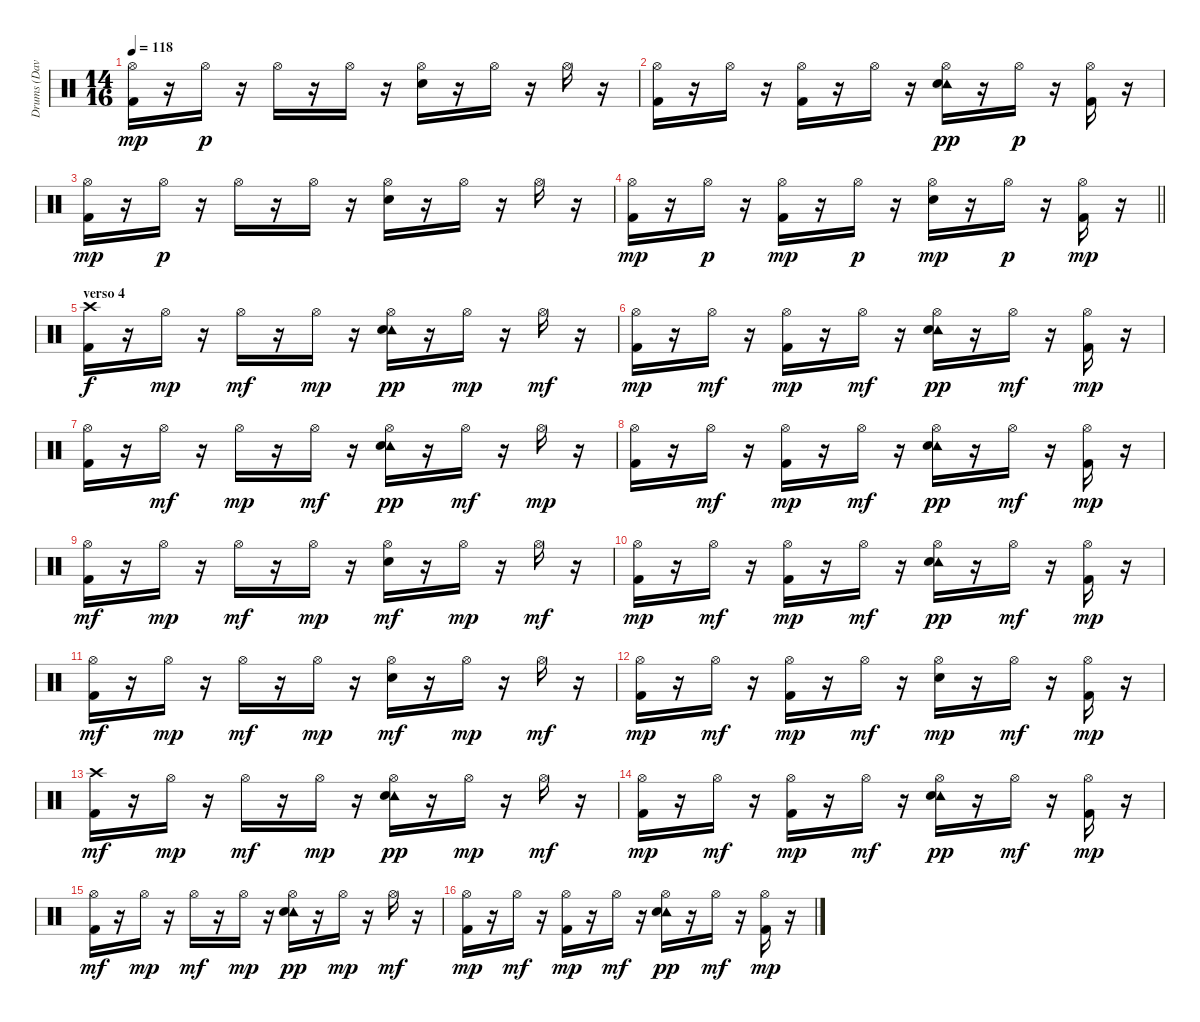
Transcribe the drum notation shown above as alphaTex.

\track ("Drums (Dave Turncrantz)" "Drums (Dav") {instrument percussion}
\staff {score}
\articulation defaults
\ts (14 16)
\tempo 118
\clef neutral
\ks c
("Hi-Hat (open)" "Kick (hit) 2").16{dy mp} r.16 "Hi-Hat (open)".16{dy p} r.16 "Hi-Hat (open)".16 r.16 "Hi-Hat (open)".16 r.16 ("Hi-Hat (open)" "Snare (hit) 2").16 r.16 "Hi-Hat (open)".16 r.16 "Hi-Hat (open)".16 r.16 |
("Hi-Hat (open)" "Kick (hit) 2").16 r.16 "Hi-Hat (open)".16 r.16 ("Hi-Hat (open)" "Kick (hit) 2").16 r.16 "Hi-Hat (open)".16 r.16 ("Hi-Hat (open)" "Tambourine (hit)" "Snare (hit) 2").16{dy pp} r.16 "Hi-Hat (open)".16{dy p} r.16 ("Hi-Hat (open)" "Kick (hit) 2").16 r.16 |
("Hi-Hat (open)" "Kick (hit) 2").16{dy mp} r.16 "Hi-Hat (open)".16{dy p} r.16 "Hi-Hat (open)".16 r.16 "Hi-Hat (open)".16 r.16 ("Hi-Hat (open)" "Snare (hit) 2").16 r.16 "Hi-Hat (open)".16 r.16 "Hi-Hat (open)".16 r.16 |
\barLineRight lightlight
("Hi-Hat (open)" "Kick (hit) 2").16{dy mp} r.16 "Hi-Hat (open)".16{dy p} r.16 ("Hi-Hat (open)" "Kick (hit) 2").16{dy mp} r.16 "Hi-Hat (open)".16{dy p} r.16 ("Hi-Hat (open)" "Snare (hit) 2").16{dy mp} r.16 "Hi-Hat (open)".16{dy p} r.16 ("Hi-Hat (open)" "Kick (hit) 2").16{dy mp} r.16 |
\section ("" "verso 4")
("Crash high (hit)" "Kick (hit) 2").16{dy f} r.16 "Hi-Hat (open)".16{dy mp} r.16 "Hi-Hat (open)".16{dy mf} r.16 "Hi-Hat (open)".16{dy mp} r.16 ("Hi-Hat (open)" "Tambourine (hit)" "Snare (hit) 2").16{dy pp} r.16 "Hi-Hat (open)".16{dy mp} r.16 "Hi-Hat (open)".16{dy mf} r.16 |
("Hi-Hat (open)" "Kick (hit) 2").16{dy mp} r.16 "Hi-Hat (open)".16{dy mf} r.16 ("Hi-Hat (open)" "Kick (hit) 2").16{dy mp} r.16 "Hi-Hat (open)".16{dy mf} r.16 ("Hi-Hat (open)" "Tambourine (hit)" "Snare (hit) 2").16{dy pp} r.16 "Hi-Hat (open)".16{dy mf} r.16 ("Hi-Hat (open)" "Kick (hit) 2").16{dy mp} r.16 |
("Hi-Hat (open)" "Kick (hit) 2").16 r.16 "Hi-Hat (open)".16{dy mf} r.16 "Hi-Hat (open)".16{dy mp} r.16 "Hi-Hat (open)".16{dy mf} r.16 ("Hi-Hat (open)" "Tambourine (hit)" "Snare (hit) 2").16{dy pp} r.16 "Hi-Hat (open)".16{dy mf} r.16 "Hi-Hat (open)".16{dy mp} r.16 |
("Hi-Hat (open)" "Kick (hit) 2").16 r.16 "Hi-Hat (open)".16{dy mf} r.16 ("Hi-Hat (open)" "Kick (hit) 2").16{dy mp} r.16 "Hi-Hat (open)".16{dy mf} r.16 ("Hi-Hat (open)" "Tambourine (hit)" "Snare (hit) 2").16{dy pp} r.16 "Hi-Hat (open)".16{dy mf} r.16 ("Hi-Hat (open)" "Kick (hit) 2").16{dy mp} r.16 |
("Hi-Hat (open)" "Kick (hit) 2").16{dy mf} r.16 "Hi-Hat (open)".16{dy mp} r.16 "Hi-Hat (open)".16{dy mf} r.16 "Hi-Hat (open)".16{dy mp} r.16 ("Hi-Hat (open)" "Snare (hit) 2").16{dy mf} r.16 "Hi-Hat (open)".16{dy mp} r.16 "Hi-Hat (open)".16{dy mf} r.16 |
("Hi-Hat (open)" "Kick (hit) 2").16{dy mp} r.16 "Hi-Hat (open)".16{dy mf} r.16 ("Hi-Hat (open)" "Kick (hit) 2").16{dy mp} r.16 "Hi-Hat (open)".16{dy mf} r.16 ("Hi-Hat (open)" "Tambourine (hit)" "Snare (hit) 2").16{dy pp} r.16 "Hi-Hat (open)".16{dy mf} r.16 ("Hi-Hat (open)" "Kick (hit) 2").16{dy mp} r.16 |
("Hi-Hat (open)" "Kick (hit) 2").16{dy mf} r.16 "Hi-Hat (open)".16{dy mp} r.16 "Hi-Hat (open)".16{dy mf} r.16 "Hi-Hat (open)".16{dy mp} r.16 ("Hi-Hat (open)" "Snare (hit) 2").16{dy mf} r.16 "Hi-Hat (open)".16{dy mp} r.16 "Hi-Hat (open)".16{dy mf} r.16 |
("Hi-Hat (open)" "Kick (hit) 2").16{dy mp} r.16 "Hi-Hat (open)".16{dy mf} r.16 ("Hi-Hat (open)" "Kick (hit) 2").16{dy mp} r.16 "Hi-Hat (open)".16{dy mf} r.16 ("Hi-Hat (open)" "Snare (hit) 2").16{dy mp} r.16 "Hi-Hat (open)".16{dy mf} r.16 ("Hi-Hat (open)" "Kick (hit) 2").16{dy mp} r.16 |
("Crash high (hit)" "Kick (hit) 2").16{dy mf} r.16 "Hi-Hat (open)".16{dy mp} r.16 "Hi-Hat (open)".16{dy mf} r.16 "Hi-Hat (open)".16{dy mp} r.16 ("Hi-Hat (open)" "Tambourine (hit)" "Snare (hit) 2").16{dy pp} r.16 "Hi-Hat (open)".16{dy mp} r.16 "Hi-Hat (open)".16{dy mf} r.16 |
("Hi-Hat (open)" "Kick (hit) 2").16{dy mp} r.16 "Hi-Hat (open)".16{dy mf} r.16 ("Hi-Hat (open)" "Kick (hit) 2").16{dy mp} r.16 "Hi-Hat (open)".16{dy mf} r.16 ("Hi-Hat (open)" "Tambourine (hit)" "Snare (hit) 2").16{dy pp} r.16 "Hi-Hat (open)".16{dy mf} r.16 ("Hi-Hat (open)" "Kick (hit) 2").16{dy mp} r.16 |
("Hi-Hat (open)" "Kick (hit) 2").16{dy mf} r.16 "Hi-Hat (open)".16{dy mp} r.16 "Hi-Hat (open)".16{dy mf} r.16 "Hi-Hat (open)".16{dy mp} r.16 ("Hi-Hat (open)" "Tambourine (hit)" "Snare (hit) 2").16{dy pp} r.16 "Hi-Hat (open)".16{dy mp} r.16 "Hi-Hat (open)".16{dy mf} r.16 |
("Hi-Hat (open)" "Kick (hit) 2").16{dy mp} r.16 "Hi-Hat (open)".16{dy mf} r.16 ("Hi-Hat (open)" "Kick (hit) 2").16{dy mp} r.16 "Hi-Hat (open)".16{dy mf} r.16 ("Hi-Hat (open)" "Tambourine (hit)" "Snare (hit) 2").16{dy pp} r.16 "Hi-Hat (open)".16{dy mf} r.16 ("Hi-Hat (open)" "Kick (hit) 2").16{dy mp} r.16
